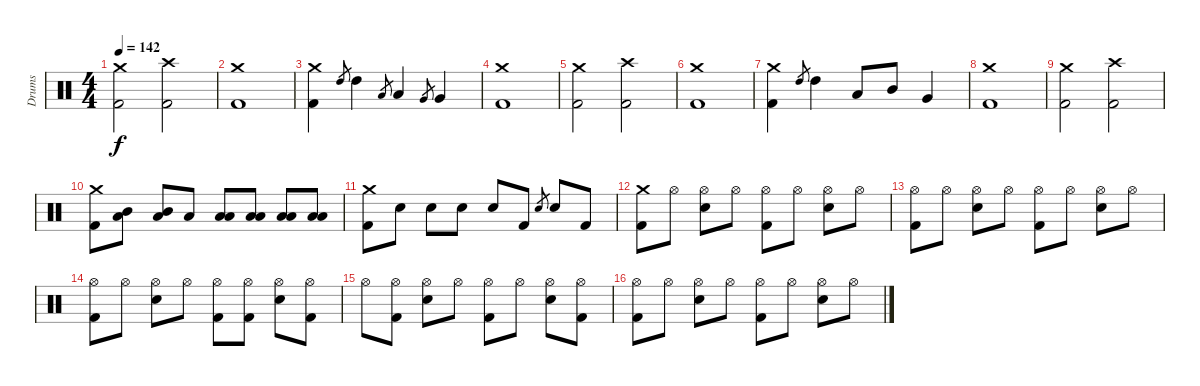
\track ("Drums" "Drums") {instrument percussion}
\staff {score}
\articulation defaults
\ts (4 4)
\tempo 142
\clef neutral
\ks c
("Crash medium (hit)" "Kick (hit) 2").2{dy f} ("Crash high (hit)" "Kick (hit) 2").2 |
("Crash medium (hit)" "Kick (hit) 2").1 |
("Crash medium (hit)" "Kick (hit) 2").4 "High Tom (hit)".8{gr} "High Tom (hit)".4 "Low Tom (hit)".8{gr} "Low Tom (hit)".4 "Very Low Tom (hit)".8{gr} "Very Low Tom (hit)".4 |
("Crash medium (hit)" "Kick (hit) 2").1 |
("Crash medium (hit)" "Kick (hit) 2").2 ("Crash high (hit)" "Kick (hit) 2").2 |
("Crash medium (hit)" "Kick (hit) 2").1 |
("Crash medium (hit)" "Kick (hit) 2").4 "High Tom (hit)".8{gr} "High Tom (hit)".4 "Low Tom (hit)".8 "Mid Tom (hit)".8 "Very Low Tom (hit)".4 |
("Crash medium (hit)" "Kick (hit) 2").1 |
("Crash medium (hit)" "Kick (hit) 2").2 ("Crash high (hit)" "Kick (hit) 2").2 |
("Crash medium (hit)" "Kick (hit) 2").8 ("Mid Tom (hit)" "Low Tom (hit)").8 ("Mid Tom (hit)" "Low Tom (hit)").8 "Low Floor Tom (hit)".8 ("Low Tom (hit)" "Low Floor Tom (hit)").8 ("Low Tom (hit)" "Low Floor Tom (hit)").8 ("Low Tom (hit)" "Low Floor Tom (hit)").8 ("Low Tom (hit)" "Low Floor Tom (hit)").8 |
("Crash medium (hit)" "Kick (hit) 2").8 "Snare (hit) 2".8 "Snare (hit) 2".8 "Snare (hit) 2".8 "Snare (hit) 2".8 "Kick (hit) 2".8 "Snare (hit) 2".8{gr} "Snare (hit) 2".8 "Kick (hit) 2".8 |
("Crash medium (hit)" "Kick (hit) 2").8 "Hi-Hat (open)".8 ("Hi-Hat (open)" "Snare (hit) 2").8 "Hi-Hat (open)".8 ("Hi-Hat (open)" "Kick (hit) 2").8 "Hi-Hat (open)".8 ("Hi-Hat (open)" "Snare (hit) 2").8 "Hi-Hat (open)".8 |
("Hi-Hat (open)" "Kick (hit) 2").8 "Hi-Hat (open)".8 ("Hi-Hat (open)" "Snare (hit) 2").8 "Hi-Hat (open)".8 ("Hi-Hat (open)" "Kick (hit) 2").8 "Hi-Hat (open)".8 ("Hi-Hat (open)" "Snare (hit) 2").8 "Hi-Hat (open)".8 |
("Hi-Hat (open)" "Kick (hit) 2").8 "Hi-Hat (open)".8 ("Hi-Hat (open)" "Snare (hit) 2").8 "Hi-Hat (open)".8 ("Hi-Hat (open)" "Kick (hit) 2").8 ("Hi-Hat (open)" "Kick (hit) 2").8 ("Hi-Hat (open)" "Snare (hit) 2").8 ("Hi-Hat (open)" "Kick (hit) 2").8 |
"Hi-Hat (open)".8 ("Hi-Hat (open)" "Kick (hit) 2").8 ("Hi-Hat (open)" "Snare (hit) 2").8 "Hi-Hat (open)".8 ("Hi-Hat (open)" "Kick (hit) 2").8 "Hi-Hat (open)".8 ("Hi-Hat (open)" "Snare (hit) 2").8 ("Hi-Hat (open)" "Kick (hit) 2").8 |
("Hi-Hat (open)" "Kick (hit) 2").8 "Hi-Hat (open)".8 ("Hi-Hat (open)" "Snare (hit) 2").8 "Hi-Hat (open)".8 ("Hi-Hat (open)" "Kick (hit) 2").8 "Hi-Hat (open)".8 ("Hi-Hat (open)" "Snare (hit) 2").8 "Hi-Hat (open)".8
